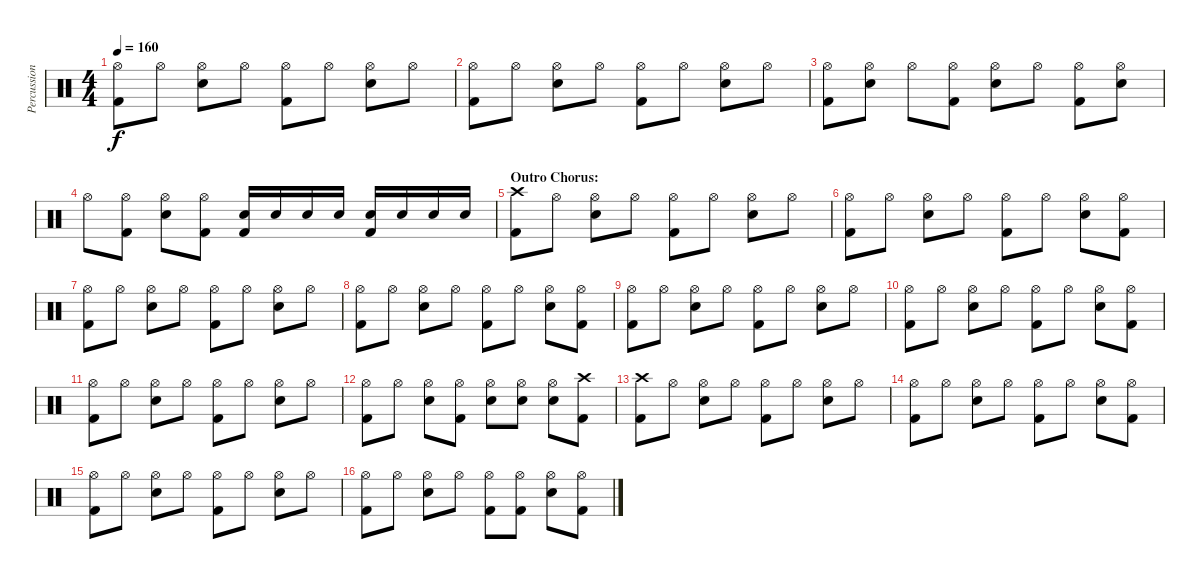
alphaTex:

\track ("Percussion" "Percussion") {instrument percussion}
\staff {score}
\articulation defaults
\ts (4 4)
\tempo 160
\clef neutral
\ks c
("Hi-Hat (open)"{t} "Kick (hit) 2"{t}).8{dy f} "Hi-Hat (open)".8 ("Hi-Hat (open)" "Snare (hit) 2").8 "Hi-Hat (open)".8 ("Hi-Hat (open)" "Kick (hit) 2").8 "Hi-Hat (open)".8 ("Hi-Hat (open)" "Snare (hit) 2").8 "Hi-Hat (open)".8 |
("Hi-Hat (open)" "Kick (hit) 2").8 "Hi-Hat (open)".8 ("Hi-Hat (open)" "Snare (hit) 2").8 "Hi-Hat (open)".8 ("Hi-Hat (open)" "Kick (hit) 2").8 "Hi-Hat (open)".8 ("Hi-Hat (open)" "Snare (hit) 2").8 "Hi-Hat (open)".8 |
("Hi-Hat (open)" "Kick (hit) 2").8 ("Hi-Hat (open)" "Snare (hit) 2").8 "Hi-Hat (open)".8 ("Hi-Hat (open)" "Kick (hit) 2").8 ("Hi-Hat (open)" "Snare (hit) 2").8 "Hi-Hat (open)".8 ("Hi-Hat (open)" "Kick (hit) 2").8 ("Hi-Hat (open)" "Snare (hit) 2").8 |
"Hi-Hat (open)".8 ("Hi-Hat (open)" "Kick (hit) 2").8 ("Hi-Hat (open)" "Snare (hit) 2").8 ("Hi-Hat (open)" "Kick (hit) 2").8 ("Snare (hit) 2" "Kick (hit) 2").16 "Snare (hit) 2".16 "Snare (hit) 2".16 "Snare (hit) 2".16 ("Snare (hit) 2" "Kick (hit) 2").16 "Snare (hit) 2".16 "Snare (hit) 2".16 "Snare (hit) 2".16 |
\section ("" "Outro Chorus:")
("Crash high (hit)" "Kick (hit) 2").8 "Hi-Hat (open)".8 ("Hi-Hat (open)" "Snare (hit) 2").8 "Hi-Hat (open)".8 ("Hi-Hat (open)" "Kick (hit) 2").8 "Hi-Hat (open)".8 ("Hi-Hat (open)" "Snare (hit) 2").8 "Hi-Hat (open)".8 |
("Hi-Hat (open)" "Kick (hit) 2").8 "Hi-Hat (open)".8 ("Hi-Hat (open)" "Snare (hit) 2").8 "Hi-Hat (open)".8 ("Hi-Hat (open)" "Kick (hit) 2").8 "Hi-Hat (open)".8 ("Hi-Hat (open)" "Snare (hit) 2").8 ("Hi-Hat (open)" "Kick (hit) 2").8 |
("Hi-Hat (open)" "Kick (hit) 2").8 "Hi-Hat (open)".8 ("Hi-Hat (open)" "Snare (hit) 2").8 "Hi-Hat (open)".8 ("Hi-Hat (open)" "Kick (hit) 2").8 "Hi-Hat (open)".8 ("Hi-Hat (open)" "Snare (hit) 2").8 "Hi-Hat (open)".8 |
("Hi-Hat (open)" "Kick (hit) 2").8 "Hi-Hat (open)".8 ("Hi-Hat (open)" "Snare (hit) 2").8 "Hi-Hat (open)".8 ("Hi-Hat (open)" "Kick (hit) 2").8 "Hi-Hat (open)".8 ("Hi-Hat (open)" "Snare (hit) 2").8 ("Hi-Hat (open)" "Kick (hit) 2").8 |
("Hi-Hat (open)" "Kick (hit) 2").8 "Hi-Hat (open)".8 ("Hi-Hat (open)" "Snare (hit) 2").8 "Hi-Hat (open)".8 ("Hi-Hat (open)" "Kick (hit) 2").8 "Hi-Hat (open)".8 ("Hi-Hat (open)" "Snare (hit) 2").8 "Hi-Hat (open)".8 |
("Hi-Hat (open)" "Kick (hit) 2").8 "Hi-Hat (open)".8 ("Hi-Hat (open)" "Snare (hit) 2").8 "Hi-Hat (open)".8 ("Hi-Hat (open)" "Kick (hit) 2").8 "Hi-Hat (open)".8 ("Hi-Hat (open)" "Snare (hit) 2").8 ("Hi-Hat (open)" "Kick (hit) 2").8 |
("Hi-Hat (open)" "Kick (hit) 2").8 "Hi-Hat (open)".8 ("Hi-Hat (open)" "Snare (hit) 2").8 "Hi-Hat (open)".8 ("Hi-Hat (open)" "Kick (hit) 2").8 "Hi-Hat (open)".8 ("Hi-Hat (open)" "Snare (hit) 2").8 "Hi-Hat (open)".8 |
("Hi-Hat (open)" "Kick (hit) 2").8 "Hi-Hat (open)".8 ("Hi-Hat (open)" "Snare (hit) 2").8 ("Hi-Hat (open)" "Kick (hit) 2").8 ("Hi-Hat (open)" "Snare (hit) 2").8 ("Hi-Hat (open)" "Snare (hit) 2").8 ("Hi-Hat (open)" "Snare (hit) 2").8 ("Crash high (hit)" "Kick (hit) 2").8 |
("Crash high (hit)" "Kick (hit) 2").8 "Hi-Hat (open)".8 ("Hi-Hat (open)" "Snare (hit) 2").8 "Hi-Hat (open)".8 ("Hi-Hat (open)" "Kick (hit) 2").8 "Hi-Hat (open)".8 ("Hi-Hat (open)" "Snare (hit) 2").8 "Hi-Hat (open)".8 |
("Hi-Hat (open)" "Kick (hit) 2").8 "Hi-Hat (open)".8 ("Hi-Hat (open)" "Snare (hit) 2").8 "Hi-Hat (open)".8 ("Hi-Hat (open)" "Kick (hit) 2").8 "Hi-Hat (open)".8 ("Hi-Hat (open)" "Snare (hit) 2").8 ("Hi-Hat (open)" "Kick (hit) 2").8 |
("Hi-Hat (open)" "Kick (hit) 2").8 "Hi-Hat (open)".8 ("Hi-Hat (open)" "Snare (hit) 2").8 "Hi-Hat (open)".8 ("Hi-Hat (open)" "Kick (hit) 2").8 "Hi-Hat (open)".8 ("Hi-Hat (open)" "Snare (hit) 2").8 "Hi-Hat (open)".8 |
("Hi-Hat (open)" "Kick (hit) 2").8 "Hi-Hat (open)".8 ("Hi-Hat (open)" "Snare (hit) 2").8 "Hi-Hat (open)".8 ("Hi-Hat (open)" "Kick (hit) 2").8 ("Hi-Hat (open)" "Kick (hit) 2").8 ("Hi-Hat (open)" "Snare (hit) 2").8 ("Hi-Hat (open)" "Kick (hit) 2").8
